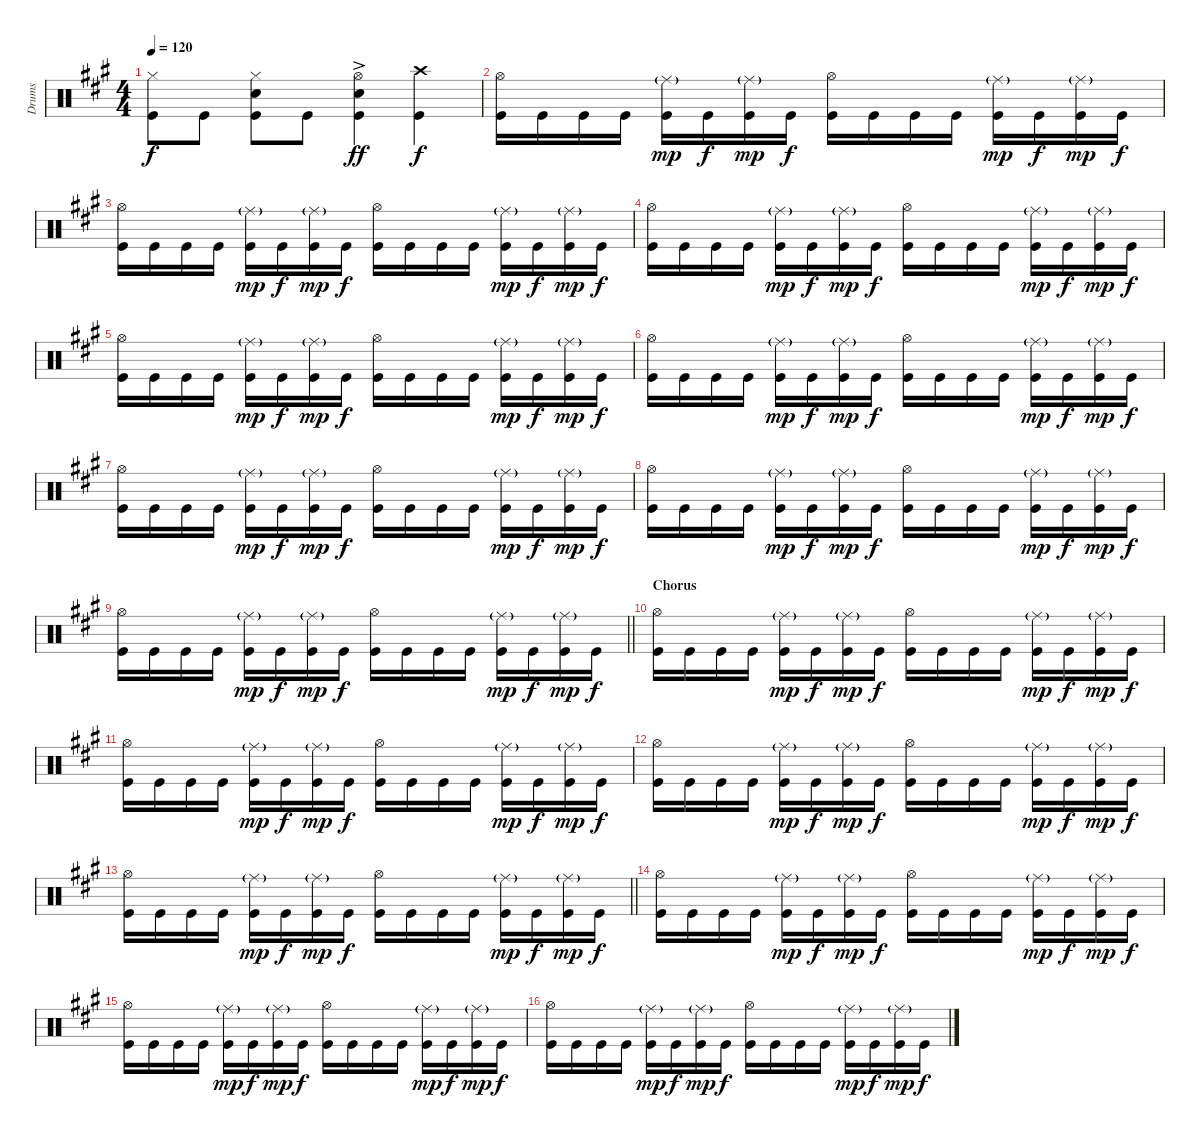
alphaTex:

\track ("Drums" "Drums") {instrument percussion}
\staff {score}
\articulation defaults
\ts (4 4)
\tempo 120
\clef neutral
\ks a
("Hi-Hat (closed)" "Kick (hit)").8{dy f} "Kick (hit)".8 ("Hi-Hat (closed)" "Snare (hit) 2" "Kick (hit)").8 "Kick (hit)".8 ("Hi-Hat (open)" "Snare (hit) 2"{ac} "Kick (hit)"{ac}).4{dy ff} ("Crash high (hit)" "Kick (hit)").4{dy f} |
("Hi-Hat (open)" "Kick (hit)").16 "Kick (hit)".16 "Kick (hit)".16 "Kick (hit)".16 ("Ride (middle)"{g} "Kick (hit)").16{dy mp} "Kick (hit)".16{dy f} ("Ride (middle)"{g} "Kick (hit)").16{dy mp} "Kick (hit)".16{dy f} ("Hi-Hat (open)" "Kick (hit)").16 "Kick (hit)".16 "Kick (hit)".16 "Kick (hit)".16 ("Ride (middle)"{g} "Kick (hit)").16{dy mp} "Kick (hit)".16{dy f} ("Ride (middle)"{g} "Kick (hit)").16{dy mp} "Kick (hit)".16{dy f} |
("Hi-Hat (open)" "Kick (hit)").16 "Kick (hit)".16 "Kick (hit)".16 "Kick (hit)".16 ("Ride (middle)"{g} "Kick (hit)").16{dy mp} "Kick (hit)".16{dy f} ("Ride (middle)"{g} "Kick (hit)").16{dy mp} "Kick (hit)".16{dy f} ("Hi-Hat (open)" "Kick (hit)").16 "Kick (hit)".16 "Kick (hit)".16 "Kick (hit)".16 ("Ride (middle)"{g} "Kick (hit)").16{dy mp} "Kick (hit)".16{dy f} ("Ride (middle)"{g} "Kick (hit)").16{dy mp} "Kick (hit)".16{dy f} |
("Hi-Hat (open)" "Kick (hit)").16 "Kick (hit)".16 "Kick (hit)".16 "Kick (hit)".16 ("Ride (middle)"{g} "Kick (hit)").16{dy mp} "Kick (hit)".16{dy f} ("Ride (middle)"{g} "Kick (hit)").16{dy mp} "Kick (hit)".16{dy f} ("Hi-Hat (open)" "Kick (hit)").16 "Kick (hit)".16 "Kick (hit)".16 "Kick (hit)".16 ("Ride (middle)"{g} "Kick (hit)").16{dy mp} "Kick (hit)".16{dy f} ("Ride (middle)"{g} "Kick (hit)").16{dy mp} "Kick (hit)".16{dy f} |
("Hi-Hat (open)" "Kick (hit)").16 "Kick (hit)".16 "Kick (hit)".16 "Kick (hit)".16 ("Ride (middle)"{g} "Kick (hit)").16{dy mp} "Kick (hit)".16{dy f} ("Ride (middle)"{g} "Kick (hit)").16{dy mp} "Kick (hit)".16{dy f} ("Hi-Hat (open)" "Kick (hit)").16 "Kick (hit)".16 "Kick (hit)".16 "Kick (hit)".16 ("Ride (middle)"{g} "Kick (hit)").16{dy mp} "Kick (hit)".16{dy f} ("Ride (middle)"{g} "Kick (hit)").16{dy mp} "Kick (hit)".16{dy f} |
("Hi-Hat (open)" "Kick (hit)").16 "Kick (hit)".16 "Kick (hit)".16 "Kick (hit)".16 ("Ride (middle)"{g} "Kick (hit)").16{dy mp} "Kick (hit)".16{dy f} ("Ride (middle)"{g} "Kick (hit)").16{dy mp} "Kick (hit)".16{dy f} ("Hi-Hat (open)" "Kick (hit)").16 "Kick (hit)".16 "Kick (hit)".16 "Kick (hit)".16 ("Ride (middle)"{g} "Kick (hit)").16{dy mp} "Kick (hit)".16{dy f} ("Ride (middle)"{g} "Kick (hit)").16{dy mp} "Kick (hit)".16{dy f} |
("Hi-Hat (open)" "Kick (hit)").16 "Kick (hit)".16 "Kick (hit)".16 "Kick (hit)".16 ("Ride (middle)"{g} "Kick (hit)").16{dy mp} "Kick (hit)".16{dy f} ("Ride (middle)"{g} "Kick (hit)").16{dy mp} "Kick (hit)".16{dy f} ("Hi-Hat (open)" "Kick (hit)").16 "Kick (hit)".16 "Kick (hit)".16 "Kick (hit)".16 ("Ride (middle)"{g} "Kick (hit)").16{dy mp} "Kick (hit)".16{dy f} ("Ride (middle)"{g} "Kick (hit)").16{dy mp} "Kick (hit)".16{dy f} |
("Hi-Hat (open)" "Kick (hit)").16 "Kick (hit)".16 "Kick (hit)".16 "Kick (hit)".16 ("Ride (middle)"{g} "Kick (hit)").16{dy mp} "Kick (hit)".16{dy f} ("Ride (middle)"{g} "Kick (hit)").16{dy mp} "Kick (hit)".16{dy f} ("Hi-Hat (open)" "Kick (hit)").16 "Kick (hit)".16 "Kick (hit)".16 "Kick (hit)".16 ("Ride (middle)"{g} "Kick (hit)").16{dy mp} "Kick (hit)".16{dy f} ("Ride (middle)"{g} "Kick (hit)").16{dy mp} "Kick (hit)".16{dy f} |
\barLineRight lightlight
("Hi-Hat (open)" "Kick (hit)").16 "Kick (hit)".16 "Kick (hit)".16 "Kick (hit)".16 ("Ride (middle)"{g} "Kick (hit)").16{dy mp} "Kick (hit)".16{dy f} ("Ride (middle)"{g} "Kick (hit)").16{dy mp} "Kick (hit)".16{dy f} ("Hi-Hat (open)" "Kick (hit)").16 "Kick (hit)".16 "Kick (hit)".16 "Kick (hit)".16 ("Ride (middle)"{g} "Kick (hit)").16{dy mp} "Kick (hit)".16{dy f} ("Ride (middle)"{g} "Kick (hit)").16{dy mp} "Kick (hit)".16{dy f} |
\section ("" "Chorus")
("Hi-Hat (open)" "Kick (hit)").16 "Kick (hit)".16 "Kick (hit)".16 "Kick (hit)".16 ("Ride (middle)"{g} "Kick (hit)").16{dy mp} "Kick (hit)".16{dy f} ("Ride (middle)"{g} "Kick (hit)").16{dy mp} "Kick (hit)".16{dy f} ("Hi-Hat (open)" "Kick (hit)").16 "Kick (hit)".16 "Kick (hit)".16 "Kick (hit)".16 ("Ride (middle)"{g} "Kick (hit)").16{dy mp} "Kick (hit)".16{dy f} ("Ride (middle)"{g} "Kick (hit)").16{dy mp} "Kick (hit)".16{dy f} |
("Hi-Hat (open)" "Kick (hit)").16 "Kick (hit)".16 "Kick (hit)".16 "Kick (hit)".16 ("Ride (middle)"{g} "Kick (hit)").16{dy mp} "Kick (hit)".16{dy f} ("Ride (middle)"{g} "Kick (hit)").16{dy mp} "Kick (hit)".16{dy f} ("Hi-Hat (open)" "Kick (hit)").16 "Kick (hit)".16 "Kick (hit)".16 "Kick (hit)".16 ("Ride (middle)"{g} "Kick (hit)").16{dy mp} "Kick (hit)".16{dy f} ("Ride (middle)"{g} "Kick (hit)").16{dy mp} "Kick (hit)".16{dy f} |
("Hi-Hat (open)" "Kick (hit)").16 "Kick (hit)".16 "Kick (hit)".16 "Kick (hit)".16 ("Ride (middle)"{g} "Kick (hit)").16{dy mp} "Kick (hit)".16{dy f} ("Ride (middle)"{g} "Kick (hit)").16{dy mp} "Kick (hit)".16{dy f} ("Hi-Hat (open)" "Kick (hit)").16 "Kick (hit)".16 "Kick (hit)".16 "Kick (hit)".16 ("Ride (middle)"{g} "Kick (hit)").16{dy mp} "Kick (hit)".16{dy f} ("Ride (middle)"{g} "Kick (hit)").16{dy mp} "Kick (hit)".16{dy f} |
\barLineRight lightlight
("Hi-Hat (open)" "Kick (hit)").16 "Kick (hit)".16 "Kick (hit)".16 "Kick (hit)".16 ("Ride (middle)"{g} "Kick (hit)").16{dy mp} "Kick (hit)".16{dy f} ("Ride (middle)"{g} "Kick (hit)").16{dy mp} "Kick (hit)".16{dy f} ("Hi-Hat (open)" "Kick (hit)").16 "Kick (hit)".16 "Kick (hit)".16 "Kick (hit)".16 ("Ride (middle)"{g} "Kick (hit)").16{dy mp} "Kick (hit)".16{dy f} ("Ride (middle)"{g} "Kick (hit)").16{dy mp} "Kick (hit)".16{dy f} |
("Hi-Hat (open)" "Kick (hit)").16 "Kick (hit)".16 "Kick (hit)".16 "Kick (hit)".16 ("Ride (middle)"{g} "Kick (hit)").16{dy mp} "Kick (hit)".16{dy f} ("Ride (middle)"{g} "Kick (hit)").16{dy mp} "Kick (hit)".16{dy f} ("Hi-Hat (open)" "Kick (hit)").16 "Kick (hit)".16 "Kick (hit)".16 "Kick (hit)".16 ("Ride (middle)"{g} "Kick (hit)").16{dy mp} "Kick (hit)".16{dy f} ("Ride (middle)"{g} "Kick (hit)").16{dy mp} "Kick (hit)".16{dy f} |
("Hi-Hat (open)" "Kick (hit)").16 "Kick (hit)".16 "Kick (hit)".16 "Kick (hit)".16 ("Ride (middle)"{g} "Kick (hit)").16{dy mp} "Kick (hit)".16{dy f} ("Ride (middle)"{g} "Kick (hit)").16{dy mp} "Kick (hit)".16{dy f} ("Hi-Hat (open)" "Kick (hit)").16 "Kick (hit)".16 "Kick (hit)".16 "Kick (hit)".16 ("Ride (middle)"{g} "Kick (hit)").16{dy mp} "Kick (hit)".16{dy f} ("Ride (middle)"{g} "Kick (hit)").16{dy mp} "Kick (hit)".16{dy f} |
("Hi-Hat (open)" "Kick (hit)").16 "Kick (hit)".16 "Kick (hit)".16 "Kick (hit)".16 ("Ride (middle)"{g} "Kick (hit)").16{dy mp} "Kick (hit)".16{dy f} ("Ride (middle)"{g} "Kick (hit)").16{dy mp} "Kick (hit)".16{dy f} ("Hi-Hat (open)" "Kick (hit)").16 "Kick (hit)".16 "Kick (hit)".16 "Kick (hit)".16 ("Ride (middle)"{g} "Kick (hit)").16{dy mp} "Kick (hit)".16{dy f} ("Ride (middle)"{g} "Kick (hit)").16{dy mp} "Kick (hit)".16{dy f}
